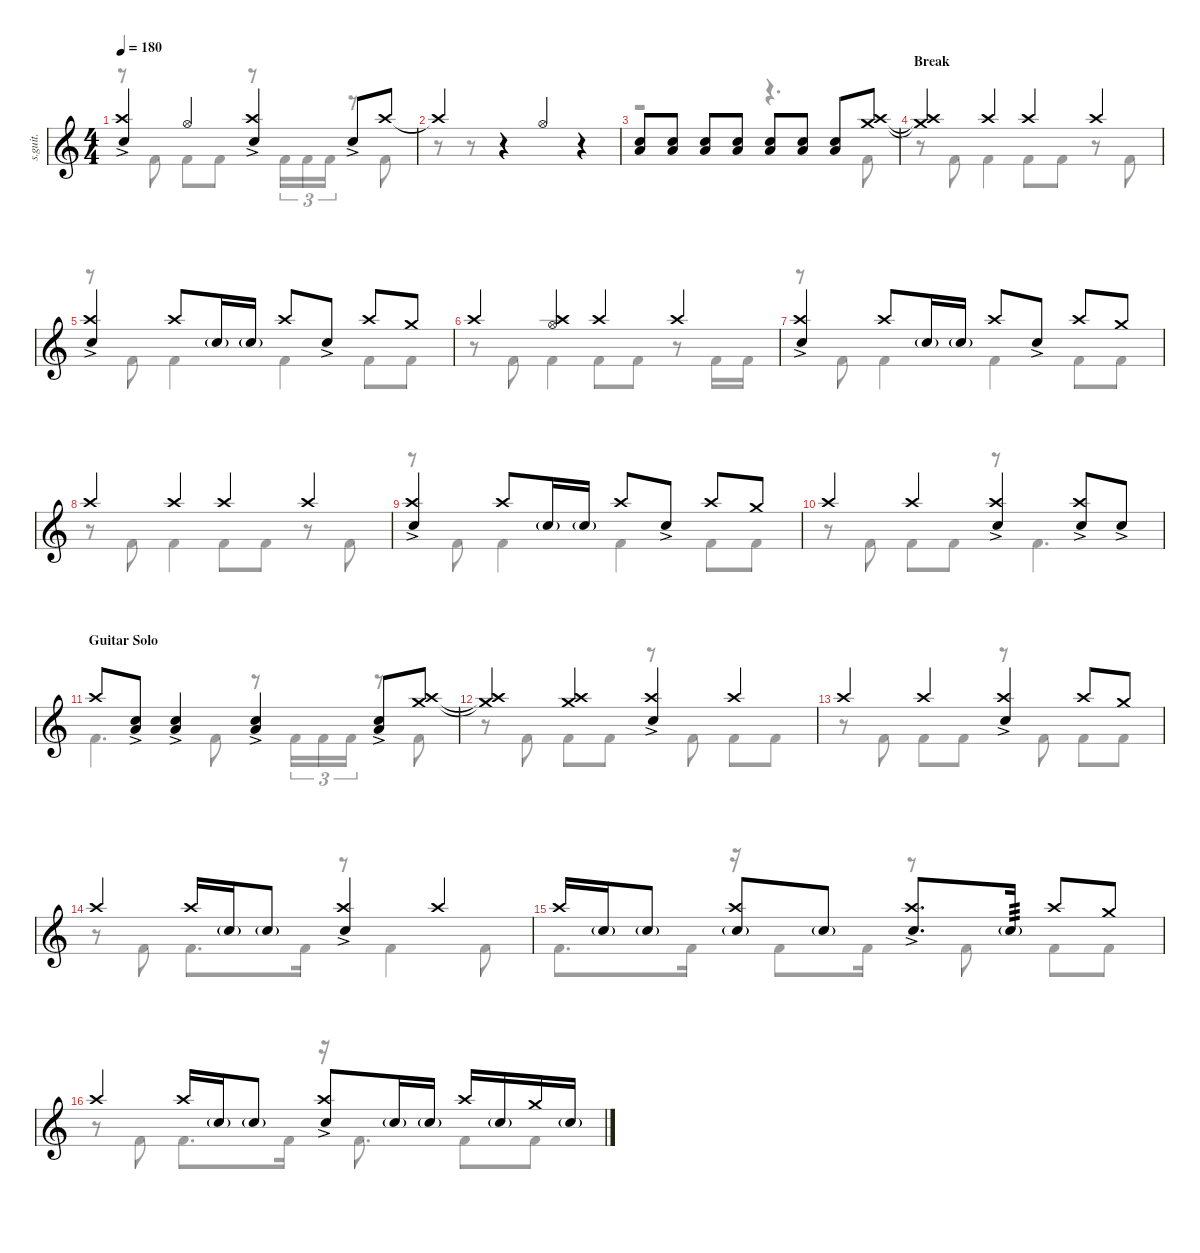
\defaultSystemsLayout 4
\hideDynamics
\bracketExtendMode nobrackets
\track ("Percussion" "s.guit.") {instrument percussion}
\staff {score}
\articulation defaults
\voice
\ts (4 4)
\tempo 180
\clef g2
\ks c
("Snare (hit) 2"{ac} "Crash high (hit)").4{lyrics (0 "") lyrics (1 "") lyrics (2 "") lyrics (3 "") lyrics (4 "") dy f} "Hi-Hat (open)".4{lyrics (0 "") lyrics (1 "") lyrics (2 "") lyrics (3 "") lyrics (4 "")} ("Snare (hit) 2"{ac} "Crash high (hit)").4{lyrics (0 "") lyrics (1 "") lyrics (2 "") lyrics (3 "") lyrics (4 "")} "Snare (hit) 2"{ac}.8{lyrics (0 "") lyrics (1 "") lyrics (2 "") lyrics (3 "") lyrics (4 "")} "Crash high (hit)".8{lyrics (0 "") lyrics (1 "") lyrics (2 "") lyrics (3 "") lyrics (4 "")} |
"Crash high (hit)"{t}.4{lyrics (0 "") lyrics (1 "") lyrics (2 "") lyrics (3 "") lyrics (4 "")} r.4 "Hi-Hat (open)".4{lyrics (0 "") lyrics (1 "") lyrics (2 "") lyrics (3 "") lyrics (4 "")} r.4 |
("Snare (hit) 2" "Low Tom (hit)").8{lyrics (0 "") lyrics (1 "") lyrics (2 "") lyrics (3 "") lyrics (4 "") dy mp} ("Snare (hit) 2" "Low Tom (hit)").8{lyrics (0 "") lyrics (1 "") lyrics (2 "") lyrics (3 "") lyrics (4 "")} ("Snare (hit) 2" "Low Tom (hit)").8{lyrics (0 "") lyrics (1 "") lyrics (2 "") lyrics (3 "") lyrics (4 "") dy mf} ("Snare (hit) 2" "Low Tom (hit)").8{lyrics (0 "") lyrics (1 "") lyrics (2 "") lyrics (3 "") lyrics (4 "")} ("Snare (hit) 2" "Low Tom (hit)").8{lyrics (0 "") lyrics (1 "") lyrics (2 "") lyrics (3 "") lyrics (4 "") dy f} ("Snare (hit) 2" "Low Tom (hit)").8{lyrics (0 "") lyrics (1 "") lyrics (2 "") lyrics (3 "") lyrics (4 "")} ("Snare (hit) 2" "Low Tom (hit)").8{lyrics (0 "") lyrics (1 "") lyrics (2 "") lyrics (3 "") lyrics (4 "")} ("Crash high (hit)" "Crash medium (hit)").8{lyrics (0 "") lyrics (1 "") lyrics (2 "") lyrics (3 "") lyrics (4 "")} |
\section ("" "Break")
("Crash high (hit)"{t} "Crash medium (hit)"{t}).4{lyrics (0 "") lyrics (1 "") lyrics (2 "") lyrics (3 "") lyrics (4 "")} "Crash high (hit)".4{lyrics (0 "") lyrics (1 "") lyrics (2 "") lyrics (3 "") lyrics (4 "")} "Crash high (hit)".4{lyrics (0 "") lyrics (1 "") lyrics (2 "") lyrics (3 "") lyrics (4 "")} "Crash high (hit)".4{lyrics (0 "") lyrics (1 "") lyrics (2 "") lyrics (3 "") lyrics (4 "")} |
("Crash high (hit)" "Snare (hit) 2"{ac}).4{lyrics (0 "") lyrics (1 "") lyrics (2 "") lyrics (3 "") lyrics (4 "")} "Crash high (hit)".8{lyrics (0 "") lyrics (1 "") lyrics (2 "") lyrics (3 "") lyrics (4 "")} "Snare (hit) 2"{g}.16{lyrics (0 "") lyrics (1 "") lyrics (2 "") lyrics (3 "") lyrics (4 "")} "Snare (hit) 2"{g}.16{lyrics (0 "") lyrics (1 "") lyrics (2 "") lyrics (3 "") lyrics (4 "")} "Crash high (hit)".8{lyrics (0 "") lyrics (1 "") lyrics (2 "") lyrics (3 "") lyrics (4 "")} "Snare (hit) 2"{ac}.8{lyrics (0 "") lyrics (1 "") lyrics (2 "") lyrics (3 "") lyrics (4 "")} "Crash high (hit)".8{lyrics (0 "") lyrics (1 "") lyrics (2 "") lyrics (3 "") lyrics (4 "")} "Crash medium (hit)".8{lyrics (0 "") lyrics (1 "") lyrics (2 "") lyrics (3 "") lyrics (4 "")} |
"Crash high (hit)".4{lyrics (0 "") lyrics (1 "") lyrics (2 "") lyrics (3 "") lyrics (4 "")} ("Crash high (hit)" "Hi-Hat (open)").4{lyrics (0 "") lyrics (1 "") lyrics (2 "") lyrics (3 "") lyrics (4 "")} "Crash high (hit)".4{lyrics (0 "") lyrics (1 "") lyrics (2 "") lyrics (3 "") lyrics (4 "")} "Crash high (hit)".4{lyrics (0 "") lyrics (1 "") lyrics (2 "") lyrics (3 "") lyrics (4 "")} |
("Crash high (hit)" "Snare (hit) 2"{ac}).4{lyrics (0 "") lyrics (1 "") lyrics (2 "") lyrics (3 "") lyrics (4 "")} "Crash high (hit)".8{lyrics (0 "") lyrics (1 "") lyrics (2 "") lyrics (3 "") lyrics (4 "")} "Snare (hit) 2"{g}.16{lyrics (0 "") lyrics (1 "") lyrics (2 "") lyrics (3 "") lyrics (4 "")} "Snare (hit) 2"{g}.16{lyrics (0 "") lyrics (1 "") lyrics (2 "") lyrics (3 "") lyrics (4 "")} "Crash high (hit)".8{lyrics (0 "") lyrics (1 "") lyrics (2 "") lyrics (3 "") lyrics (4 "")} "Snare (hit) 2"{ac}.8{lyrics (0 "") lyrics (1 "") lyrics (2 "") lyrics (3 "") lyrics (4 "")} "Crash high (hit)".8{lyrics (0 "") lyrics (1 "") lyrics (2 "") lyrics (3 "") lyrics (4 "")} "Crash medium (hit)".8{lyrics (0 "") lyrics (1 "") lyrics (2 "") lyrics (3 "") lyrics (4 "")} |
"Crash high (hit)".4{lyrics (0 "") lyrics (1 "") lyrics (2 "") lyrics (3 "") lyrics (4 "")} "Crash high (hit)".4{lyrics (0 "") lyrics (1 "") lyrics (2 "") lyrics (3 "") lyrics (4 "")} "Crash high (hit)".4{lyrics (0 "") lyrics (1 "") lyrics (2 "") lyrics (3 "") lyrics (4 "")} "Crash high (hit)".4{lyrics (0 "") lyrics (1 "") lyrics (2 "") lyrics (3 "") lyrics (4 "")} |
("Crash high (hit)" "Snare (hit) 2"{ac}).4{lyrics (0 "") lyrics (1 "") lyrics (2 "") lyrics (3 "") lyrics (4 "")} "Crash high (hit)".8{lyrics (0 "") lyrics (1 "") lyrics (2 "") lyrics (3 "") lyrics (4 "")} "Snare (hit) 2"{g}.16{lyrics (0 "") lyrics (1 "") lyrics (2 "") lyrics (3 "") lyrics (4 "")} "Snare (hit) 2"{g}.16{lyrics (0 "") lyrics (1 "") lyrics (2 "") lyrics (3 "") lyrics (4 "")} "Crash high (hit)".8{lyrics (0 "") lyrics (1 "") lyrics (2 "") lyrics (3 "") lyrics (4 "")} "Snare (hit) 2"{ac}.8{lyrics (0 "") lyrics (1 "") lyrics (2 "") lyrics (3 "") lyrics (4 "")} "Crash high (hit)".8{lyrics (0 "") lyrics (1 "") lyrics (2 "") lyrics (3 "") lyrics (4 "")} "Crash medium (hit)".8{lyrics (0 "") lyrics (1 "") lyrics (2 "") lyrics (3 "") lyrics (4 "")} |
"Crash high (hit)".4{lyrics (0 "") lyrics (1 "") lyrics (2 "") lyrics (3 "") lyrics (4 "")} "Crash high (hit)".4{lyrics (0 "") lyrics (1 "") lyrics (2 "") lyrics (3 "") lyrics (4 "")} ("Crash high (hit)" "Snare (hit) 2"{ac}).4{lyrics (0 "") lyrics (1 "") lyrics (2 "") lyrics (3 "") lyrics (4 "")} ("Crash high (hit)" "Snare (hit) 2"{ac}).8{lyrics (0 "") lyrics (1 "") lyrics (2 "") lyrics (3 "") lyrics (4 "")} "Snare (hit) 2"{ac}.8{lyrics (0 "") lyrics (1 "") lyrics (2 "") lyrics (3 "") lyrics (4 "")} |
\section ("" "Guitar Solo")
"Crash high (hit)".8{lyrics (0 "") lyrics (1 "") lyrics (2 "") lyrics (3 "") lyrics (4 "")} ("Snare (hit) 2"{ac} "Low Tom (hit)"{ac}).8{lyrics (0 "") lyrics (1 "") lyrics (2 "") lyrics (3 "") lyrics (4 "")} ("Snare (hit) 2"{ac} "Low Tom (hit)"{ac}).4{lyrics (0 "") lyrics (1 "") lyrics (2 "") lyrics (3 "") lyrics (4 "")} ("Low Tom (hit)"{ac} "Snare (hit) 2"{ac}).4{lyrics (0 "") lyrics (1 "") lyrics (2 "") lyrics (3 "") lyrics (4 "")} ("Snare (hit) 2"{ac} "Low Tom (hit)"{ac}).8{lyrics (0 "") lyrics (1 "") lyrics (2 "") lyrics (3 "") lyrics (4 "")} ("Crash medium (hit)" "Crash high (hit)").8{lyrics (0 "") lyrics (1 "") lyrics (2 "") lyrics (3 "") lyrics (4 "")} |
("Crash medium (hit)"{t} "Crash high (hit)"{t}).4{lyrics (0 "") lyrics (1 "") lyrics (2 "") lyrics (3 "") lyrics (4 "")} ("Crash medium (hit)" "Crash high (hit)").4{lyrics (0 "") lyrics (1 "") lyrics (2 "") lyrics (3 "") lyrics (4 "")} ("Crash high (hit)" "Snare (hit) 2"{ac}).4{lyrics (0 "") lyrics (1 "") lyrics (2 "") lyrics (3 "") lyrics (4 "")} "Crash high (hit)".4{lyrics (0 "") lyrics (1 "") lyrics (2 "") lyrics (3 "") lyrics (4 "")} |
"Crash high (hit)".4{lyrics (0 "") lyrics (1 "") lyrics (2 "") lyrics (3 "") lyrics (4 "")} "Crash high (hit)".4{lyrics (0 "") lyrics (1 "") lyrics (2 "") lyrics (3 "") lyrics (4 "")} ("Crash high (hit)" "Snare (hit) 2"{ac}).4{lyrics (0 "") lyrics (1 "") lyrics (2 "") lyrics (3 "") lyrics (4 "")} "Crash high (hit)".8{lyrics (0 "") lyrics (1 "") lyrics (2 "") lyrics (3 "") lyrics (4 "")} "Crash medium (hit)".8{lyrics (0 "") lyrics (1 "") lyrics (2 "") lyrics (3 "") lyrics (4 "")} |
"Crash high (hit)".4{lyrics (0 "") lyrics (1 "") lyrics (2 "") lyrics (3 "") lyrics (4 "")} "Crash high (hit)".16{lyrics (0 "") lyrics (1 "") lyrics (2 "") lyrics (3 "") lyrics (4 "")} "Snare (hit) 2"{g}.16{lyrics (0 "") lyrics (1 "") lyrics (2 "") lyrics (3 "") lyrics (4 "")} "Snare (hit) 2"{g}.8{lyrics (0 "") lyrics (1 "") lyrics (2 "") lyrics (3 "") lyrics (4 "")} ("Snare (hit) 2"{ac} "Crash high (hit)").4{lyrics (0 "") lyrics (1 "") lyrics (2 "") lyrics (3 "") lyrics (4 "")} "Crash high (hit)".4{lyrics (0 "") lyrics (1 "") lyrics (2 "") lyrics (3 "") lyrics (4 "")} |
"Crash high (hit)".16{lyrics (0 "") lyrics (1 "") lyrics (2 "") lyrics (3 "") lyrics (4 "")} "Snare (hit) 2"{g}.16{lyrics (0 "") lyrics (1 "") lyrics (2 "") lyrics (3 "") lyrics (4 "")} "Snare (hit) 2"{g}.8{lyrics (0 "") lyrics (1 "") lyrics (2 "") lyrics (3 "") lyrics (4 "")} ("Crash high (hit)" "Snare (hit) 2"{g}).8{lyrics (0 "") lyrics (1 "") lyrics (2 "") lyrics (3 "") lyrics (4 "")} "Snare (hit) 2"{g}.8{lyrics (0 "") lyrics (1 "") lyrics (2 "") lyrics (3 "") lyrics (4 "")} ("Snare (hit) 2"{ac} "Crash high (hit)").8{d lyrics (0 "") lyrics (1 "") lyrics (2 "") lyrics (3 "") lyrics (4 "")} "Snare (hit) 2"{g}.16{lyrics (0 "") lyrics (1 "") lyrics (2 "") lyrics (3 "") lyrics (4 "") tp 3} "Crash high (hit)".8{lyrics (0 "") lyrics (1 "") lyrics (2 "") lyrics (3 "") lyrics (4 "")} "Crash medium (hit)".8{lyrics (0 "") lyrics (1 "") lyrics (2 "") lyrics (3 "") lyrics (4 "")} |
"Crash high (hit)".4{lyrics (0 "") lyrics (1 "") lyrics (2 "") lyrics (3 "") lyrics (4 "")} "Crash high (hit)".16{lyrics (0 "") lyrics (1 "") lyrics (2 "") lyrics (3 "") lyrics (4 "")} "Snare (hit) 2"{g}.16{lyrics (0 "") lyrics (1 "") lyrics (2 "") lyrics (3 "") lyrics (4 "")} "Snare (hit) 2"{g}.8{lyrics (0 "") lyrics (1 "") lyrics (2 "") lyrics (3 "") lyrics (4 "")} ("Snare (hit) 2"{ac} "Crash high (hit)").8{lyrics (0 "") lyrics (1 "") lyrics (2 "") lyrics (3 "") lyrics (4 "")} "Snare (hit) 2"{g}.16{lyrics (0 "") lyrics (1 "") lyrics (2 "") lyrics (3 "") lyrics (4 "")} "Snare (hit) 2"{g}.16{lyrics (0 "") lyrics (1 "") lyrics (2 "") lyrics (3 "") lyrics (4 "")} "Crash high (hit)".16{lyrics (0 "") lyrics (1 "") lyrics (2 "") lyrics (3 "") lyrics (4 "")} "Snare (hit) 2"{g}.16{lyrics (0 "") lyrics (1 "") lyrics (2 "") lyrics (3 "") lyrics (4 "")} "Crash medium (hit)".16{lyrics (0 "") lyrics (1 "") lyrics (2 "") lyrics (3 "") lyrics (4 "")} "Snare (hit) 2"{g}.16{lyrics (0 "") lyrics (1 "") lyrics (2 "") lyrics (3 "") lyrics (4 "")}
\voice
\clef g2
\ottava regular
\simile none
\ks c
r.8{dy f} "Kick (hit) 2".8{lyrics (0 "") lyrics (1 "") lyrics (2 "") lyrics (3 "") lyrics (4 "")} "Kick (hit) 2".8{lyrics (0 "") lyrics (1 "") lyrics (2 "") lyrics (3 "") lyrics (4 "")} "Kick (hit) 2".8{lyrics (0 "") lyrics (1 "") lyrics (2 "") lyrics (3 "") lyrics (4 "")} r.8 "Kick (hit) 2".16{tu (3 2) lyrics (0 "") lyrics (1 "") lyrics (2 "") lyrics (3 "") lyrics (4 "")} "Kick (hit) 2".16{tu (3 2) lyrics (0 "") lyrics (1 "") lyrics (2 "") lyrics (3 "") lyrics (4 "")} "Kick (hit) 2".16{tu (3 2) lyrics (0 "") lyrics (1 "") lyrics (2 "") lyrics (3 "") lyrics (4 "")} r.8 "Kick (hit) 2".8{lyrics (0 "") lyrics (1 "") lyrics (2 "") lyrics (3 "") lyrics (4 "")} |
r.8 r.8 |
r.2 r.4{d} "Kick (hit) 2".8{lyrics (0 "") lyrics (1 "") lyrics (2 "") lyrics (3 "") lyrics (4 "")} |
r.8 "Kick (hit) 2".8{lyrics (0 "") lyrics (1 "") lyrics (2 "") lyrics (3 "") lyrics (4 "")} "Kick (hit) 2".4{lyrics (0 "") lyrics (1 "") lyrics (2 "") lyrics (3 "") lyrics (4 "")} "Kick (hit) 2".8{lyrics (0 "") lyrics (1 "") lyrics (2 "") lyrics (3 "") lyrics (4 "")} "Kick (hit) 2".8{lyrics (0 "") lyrics (1 "") lyrics (2 "") lyrics (3 "") lyrics (4 "")} r.8 "Kick (hit) 2".8{lyrics (0 "") lyrics (1 "") lyrics (2 "") lyrics (3 "") lyrics (4 "")} |
r.8 "Kick (hit) 2".8{lyrics (0 "") lyrics (1 "") lyrics (2 "") lyrics (3 "") lyrics (4 "")} "Kick (hit) 2".4{lyrics (0 "") lyrics (1 "") lyrics (2 "") lyrics (3 "") lyrics (4 "")} "Kick (hit) 2".4{lyrics (0 "") lyrics (1 "") lyrics (2 "") lyrics (3 "") lyrics (4 "")} "Kick (hit) 2".8{lyrics (0 "") lyrics (1 "") lyrics (2 "") lyrics (3 "") lyrics (4 "")} "Kick (hit) 2".8{lyrics (0 "") lyrics (1 "") lyrics (2 "") lyrics (3 "") lyrics (4 "")} |
r.8 "Kick (hit) 2".8{lyrics (0 "") lyrics (1 "") lyrics (2 "") lyrics (3 "") lyrics (4 "")} "Kick (hit) 2".4{lyrics (0 "") lyrics (1 "") lyrics (2 "") lyrics (3 "") lyrics (4 "")} "Kick (hit) 2".8{lyrics (0 "") lyrics (1 "") lyrics (2 "") lyrics (3 "") lyrics (4 "")} "Kick (hit) 2".8{lyrics (0 "") lyrics (1 "") lyrics (2 "") lyrics (3 "") lyrics (4 "")} r.8 "Kick (hit) 2".16{lyrics (0 "") lyrics (1 "") lyrics (2 "") lyrics (3 "") lyrics (4 "")} "Kick (hit) 2".16{lyrics (0 "") lyrics (1 "") lyrics (2 "") lyrics (3 "") lyrics (4 "")} |
r.8 "Kick (hit) 2".8{lyrics (0 "") lyrics (1 "") lyrics (2 "") lyrics (3 "") lyrics (4 "")} "Kick (hit) 2".4{lyrics (0 "") lyrics (1 "") lyrics (2 "") lyrics (3 "") lyrics (4 "")} "Kick (hit) 2".4{lyrics (0 "") lyrics (1 "") lyrics (2 "") lyrics (3 "") lyrics (4 "")} "Kick (hit) 2".8{lyrics (0 "") lyrics (1 "") lyrics (2 "") lyrics (3 "") lyrics (4 "")} "Kick (hit) 2".8{lyrics (0 "") lyrics (1 "") lyrics (2 "") lyrics (3 "") lyrics (4 "")} |
r.8 "Kick (hit) 2".8{lyrics (0 "") lyrics (1 "") lyrics (2 "") lyrics (3 "") lyrics (4 "")} "Kick (hit) 2".4{lyrics (0 "") lyrics (1 "") lyrics (2 "") lyrics (3 "") lyrics (4 "")} "Kick (hit) 2".8{lyrics (0 "") lyrics (1 "") lyrics (2 "") lyrics (3 "") lyrics (4 "")} "Kick (hit) 2".8{lyrics (0 "") lyrics (1 "") lyrics (2 "") lyrics (3 "") lyrics (4 "")} r.8 "Kick (hit) 2".8{lyrics (0 "") lyrics (1 "") lyrics (2 "") lyrics (3 "") lyrics (4 "")} |
r.8 "Kick (hit) 2".8{lyrics (0 "") lyrics (1 "") lyrics (2 "") lyrics (3 "") lyrics (4 "")} "Kick (hit) 2".4{lyrics (0 "") lyrics (1 "") lyrics (2 "") lyrics (3 "") lyrics (4 "")} "Kick (hit) 2".4{lyrics (0 "") lyrics (1 "") lyrics (2 "") lyrics (3 "") lyrics (4 "")} "Kick (hit) 2".8{lyrics (0 "") lyrics (1 "") lyrics (2 "") lyrics (3 "") lyrics (4 "")} "Kick (hit) 2".8{lyrics (0 "") lyrics (1 "") lyrics (2 "") lyrics (3 "") lyrics (4 "")} |
r.8 "Kick (hit) 2".8{lyrics (0 "") lyrics (1 "") lyrics (2 "") lyrics (3 "") lyrics (4 "")} "Kick (hit) 2".8{lyrics (0 "") lyrics (1 "") lyrics (2 "") lyrics (3 "") lyrics (4 "")} "Kick (hit) 2".8{lyrics (0 "") lyrics (1 "") lyrics (2 "") lyrics (3 "") lyrics (4 "")} r.8 "Kick (hit) 2".4{d lyrics (0 "") lyrics (1 "") lyrics (2 "") lyrics (3 "") lyrics (4 "")} |
"Kick (hit) 2".4{d lyrics (0 "") lyrics (1 "") lyrics (2 "") lyrics (3 "") lyrics (4 "")} "Kick (hit) 2".8{lyrics (0 "") lyrics (1 "") lyrics (2 "") lyrics (3 "") lyrics (4 "")} r.8 "Kick (hit) 2".16{tu (3 2) lyrics (0 "") lyrics (1 "") lyrics (2 "") lyrics (3 "") lyrics (4 "")} "Kick (hit) 2".16{tu (3 2) lyrics (0 "") lyrics (1 "") lyrics (2 "") lyrics (3 "") lyrics (4 "")} "Kick (hit) 2".16{tu (3 2) lyrics (0 "") lyrics (1 "") lyrics (2 "") lyrics (3 "") lyrics (4 "")} r.8 "Kick (hit) 2".8{lyrics (0 "") lyrics (1 "") lyrics (2 "") lyrics (3 "") lyrics (4 "")} |
r.8 "Kick (hit) 2".8{lyrics (0 "") lyrics (1 "") lyrics (2 "") lyrics (3 "") lyrics (4 "")} "Kick (hit) 2".8{lyrics (0 "") lyrics (1 "") lyrics (2 "") lyrics (3 "") lyrics (4 "")} "Kick (hit) 2".8{lyrics (0 "") lyrics (1 "") lyrics (2 "") lyrics (3 "") lyrics (4 "")} r.8 "Kick (hit) 2".8{lyrics (0 "") lyrics (1 "") lyrics (2 "") lyrics (3 "") lyrics (4 "")} "Kick (hit) 2".8{lyrics (0 "") lyrics (1 "") lyrics (2 "") lyrics (3 "") lyrics (4 "")} "Kick (hit) 2".8{lyrics (0 "") lyrics (1 "") lyrics (2 "") lyrics (3 "") lyrics (4 "")} |
r.8 "Kick (hit) 2".8{lyrics (0 "") lyrics (1 "") lyrics (2 "") lyrics (3 "") lyrics (4 "")} "Kick (hit) 2".8{lyrics (0 "") lyrics (1 "") lyrics (2 "") lyrics (3 "") lyrics (4 "")} "Kick (hit) 2".8{lyrics (0 "") lyrics (1 "") lyrics (2 "") lyrics (3 "") lyrics (4 "")} r.8 "Kick (hit) 2".8{lyrics (0 "") lyrics (1 "") lyrics (2 "") lyrics (3 "") lyrics (4 "")} "Kick (hit) 2".8{lyrics (0 "") lyrics (1 "") lyrics (2 "") lyrics (3 "") lyrics (4 "")} "Kick (hit) 2".8{lyrics (0 "") lyrics (1 "") lyrics (2 "") lyrics (3 "") lyrics (4 "")} |
r.8 "Kick (hit) 2".8{lyrics (0 "") lyrics (1 "") lyrics (2 "") lyrics (3 "") lyrics (4 "")} "Kick (hit) 2".8{d lyrics (0 "") lyrics (1 "") lyrics (2 "") lyrics (3 "") lyrics (4 "")} "Kick (hit) 2".16{lyrics (0 "") lyrics (1 "") lyrics (2 "") lyrics (3 "") lyrics (4 "")} r.8 "Kick (hit) 2".4{lyrics (0 "") lyrics (1 "") lyrics (2 "") lyrics (3 "") lyrics (4 "")} "Kick (hit) 2".8{lyrics (0 "") lyrics (1 "") lyrics (2 "") lyrics (3 "") lyrics (4 "")} |
"Kick (hit) 2".8{d lyrics (0 "") lyrics (1 "") lyrics (2 "") lyrics (3 "") lyrics (4 "")} "Kick (hit) 2".16{lyrics (0 "") lyrics (1 "") lyrics (2 "") lyrics (3 "") lyrics (4 "")} r.16 "Kick (hit) 2".8{lyrics (0 "") lyrics (1 "") lyrics (2 "") lyrics (3 "") lyrics (4 "")} "Kick (hit) 2".16{lyrics (0 "") lyrics (1 "") lyrics (2 "") lyrics (3 "") lyrics (4 "")} r.8 "Kick (hit) 2".8{lyrics (0 "") lyrics (1 "") lyrics (2 "") lyrics (3 "") lyrics (4 "")} "Kick (hit) 2".8{lyrics (0 "") lyrics (1 "") lyrics (2 "") lyrics (3 "") lyrics (4 "")} "Kick (hit) 2".8{lyrics (0 "") lyrics (1 "") lyrics (2 "") lyrics (3 "") lyrics (4 "")} |
r.8 "Kick (hit) 2".8{lyrics (0 "") lyrics (1 "") lyrics (2 "") lyrics (3 "") lyrics (4 "")} "Kick (hit) 2".8{d lyrics (0 "") lyrics (1 "") lyrics (2 "") lyrics (3 "") lyrics (4 "")} "Kick (hit) 2".16{lyrics (0 "") lyrics (1 "") lyrics (2 "") lyrics (3 "") lyrics (4 "")} r.16 "Kick (hit) 2".8{d lyrics (0 "") lyrics (1 "") lyrics (2 "") lyrics (3 "") lyrics (4 "")} "Kick (hit) 2".8{lyrics (0 "") lyrics (1 "") lyrics (2 "") lyrics (3 "") lyrics (4 "")} "Kick (hit) 2".8{lyrics (0 "") lyrics (1 "") lyrics (2 "") lyrics (3 "") lyrics (4 "")}
